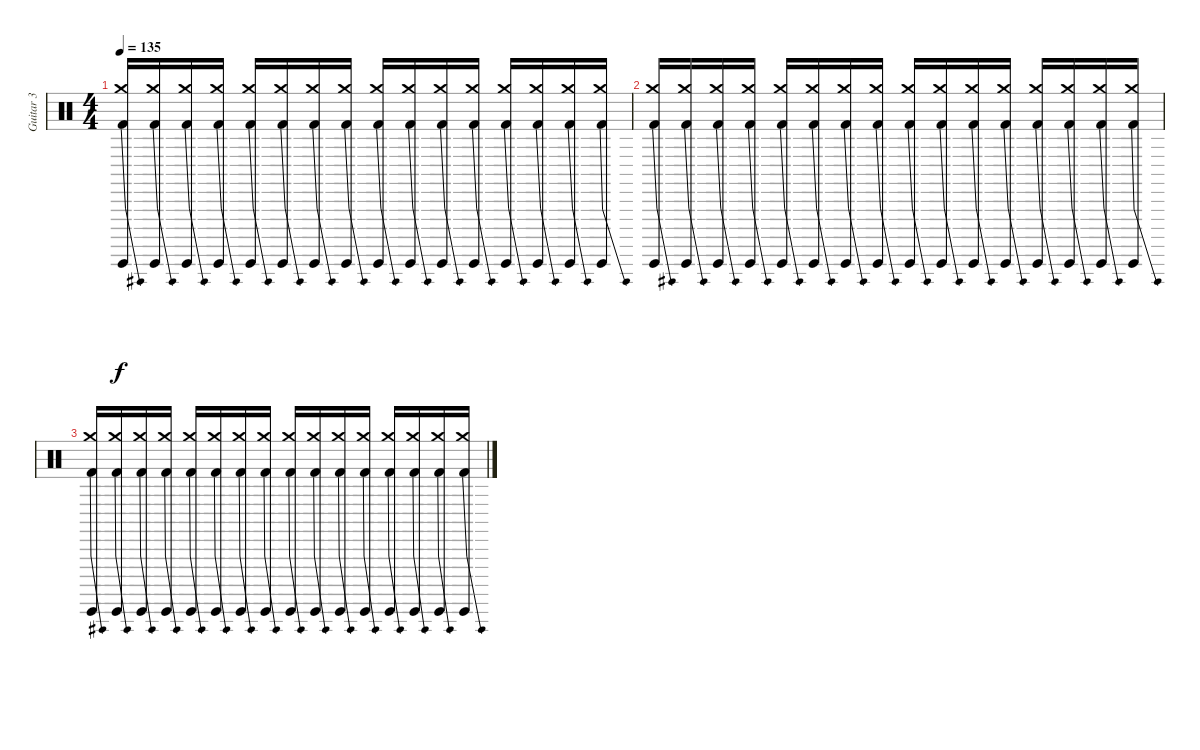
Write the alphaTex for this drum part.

\track ("Guitar 3" "Guitar 3") {instrument percussion}
\staff {score}
\articulation defaults
\ts (4 4)
\tempo 135
\clef neutral
\ks c
("Kick (hit) 2"{be (bend 0 0 60 12)} "Crash medium (hit)" "Guiro (hit)").16{dy f} ("Kick (hit) 2"{be (bend 0 0 60 12)} "Crash medium (hit)" "Guiro (hit)").16 ("Kick (hit) 2"{be (bend 0 0 60 12)} "Crash medium (hit)" "Guiro (hit)").16 ("Kick (hit) 2"{be (bend 0 0 60 12)} "Crash medium (hit)" "Guiro (hit)").16 ("Kick (hit) 2"{be (bend 0 0 60 12)} "Crash medium (hit)" "Guiro (hit)").16 ("Kick (hit) 2"{be (bend 0 0 60 12)} "Crash medium (hit)" "Guiro (hit)").16 ("Kick (hit) 2"{be (bend 0 0 60 12)} "Crash medium (hit)" "Guiro (hit)").16 ("Kick (hit) 2"{be (bend 0 0 60 12)} "Crash medium (hit)" "Guiro (hit)").16 ("Kick (hit) 2"{be (bend 0 0 60 12)} "Crash medium (hit)" "Guiro (hit)").16 ("Kick (hit) 2"{be (bend 0 0 60 12)} "Crash medium (hit)" "Guiro (hit)").16 ("Kick (hit) 2"{be (bend 0 0 60 12)} "Crash medium (hit)" "Guiro (hit)").16 ("Kick (hit) 2"{be (bend 0 0 60 12)} "Crash medium (hit)" "Guiro (hit)").16 ("Kick (hit) 2"{be (bend 0 0 60 12)} "Crash medium (hit)" "Guiro (hit)").16 ("Kick (hit) 2"{be (bend 0 0 60 12)} "Crash medium (hit)" "Guiro (hit)").16 ("Kick (hit) 2"{be (bend 0 0 60 12)} "Crash medium (hit)" "Guiro (hit)").16 ("Kick (hit) 2"{be (bend 0 0 60 12)} "Crash medium (hit)" "Guiro (hit)").16 |
("Kick (hit) 2"{be (bend 0 0 60 12)} "Crash medium (hit)" "Guiro (hit)").16 ("Kick (hit) 2"{be (bend 0 0 60 12)} "Crash medium (hit)" "Guiro (hit)").16 ("Kick (hit) 2"{be (bend 0 0 60 12)} "Crash medium (hit)" "Guiro (hit)").16 ("Kick (hit) 2"{be (bend 0 0 60 12)} "Crash medium (hit)" "Guiro (hit)").16 ("Kick (hit) 2"{be (bend 0 0 60 12)} "Crash medium (hit)" "Guiro (hit)").16 ("Kick (hit) 2"{be (bend 0 0 60 12)} "Crash medium (hit)" "Guiro (hit)").16 ("Kick (hit) 2"{be (bend 0 0 60 12)} "Crash medium (hit)" "Guiro (hit)").16 ("Kick (hit) 2"{be (bend 0 0 60 12)} "Crash medium (hit)" "Guiro (hit)").16 ("Kick (hit) 2"{be (bend 0 0 60 12)} "Crash medium (hit)" "Guiro (hit)").16 ("Kick (hit) 2"{be (bend 0 0 60 12)} "Crash medium (hit)" "Guiro (hit)").16 ("Kick (hit) 2"{be (bend 0 0 60 12)} "Crash medium (hit)" "Guiro (hit)").16 ("Kick (hit) 2"{be (bend 0 0 60 12)} "Crash medium (hit)" "Guiro (hit)").16 ("Kick (hit) 2"{be (bend 0 0 60 12)} "Crash medium (hit)" "Guiro (hit)").16 ("Kick (hit) 2"{be (bend 0 0 60 12)} "Crash medium (hit)" "Guiro (hit)").16 ("Kick (hit) 2"{be (bend 0 0 60 12)} "Crash medium (hit)" "Guiro (hit)").16 ("Kick (hit) 2"{be (bend 0 0 60 12)} "Crash medium (hit)" "Guiro (hit)").16 |
("Kick (hit) 2"{be (bend 0 0 60 12)} "Crash medium (hit)" "Guiro (hit)").16 ("Kick (hit) 2"{be (bend 0 0 60 12)} "Crash medium (hit)" "Guiro (hit)").16 ("Kick (hit) 2"{be (bend 0 0 60 12)} "Crash medium (hit)" "Guiro (hit)").16 ("Kick (hit) 2"{be (bend 0 0 60 12)} "Crash medium (hit)" "Guiro (hit)").16 ("Kick (hit) 2"{be (bend 0 0 60 12)} "Crash medium (hit)" "Guiro (hit)").16 ("Kick (hit) 2"{be (bend 0 0 60 12)} "Crash medium (hit)" "Guiro (hit)").16 ("Kick (hit) 2"{be (bend 0 0 60 12)} "Crash medium (hit)" "Guiro (hit)").16 ("Kick (hit) 2"{be (bend 0 0 60 12)} "Crash medium (hit)" "Guiro (hit)").16 ("Kick (hit) 2"{be (bend 0 0 60 12)} "Crash medium (hit)" "Guiro (hit)").16 ("Kick (hit) 2"{be (bend 0 0 60 12)} "Crash medium (hit)" "Guiro (hit)").16 ("Kick (hit) 2"{be (bend 0 0 60 12)} "Crash medium (hit)" "Guiro (hit)").16 ("Kick (hit) 2"{be (bend 0 0 60 12)} "Crash medium (hit)" "Guiro (hit)").16 ("Kick (hit) 2"{be (bend 0 0 60 12)} "Crash medium (hit)" "Guiro (hit)").16 ("Kick (hit) 2"{be (bend 0 0 60 12)} "Crash medium (hit)" "Guiro (hit)").16 ("Kick (hit) 2"{be (bend 0 0 60 12)} "Crash medium (hit)" "Guiro (hit)").16 ("Kick (hit) 2"{be (bend 0 0 60 12)} "Crash medium (hit)" "Guiro (hit)").16
